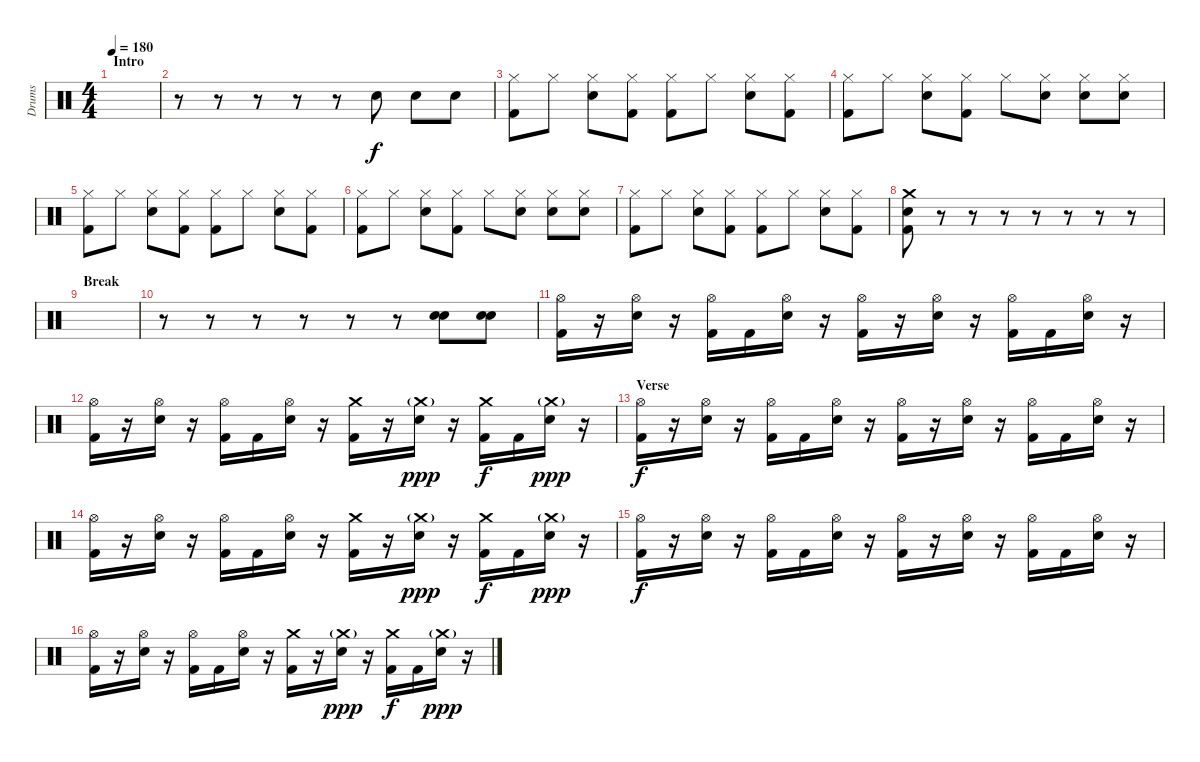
\track ("Drums" "Drums") {instrument percussion}
\staff {score}
\articulation defaults
\ts (4 4)
\section ("" "Intro")
\tempo 180
\clef neutral
\ks c
|
r.8 r.8 r.8 r.8 r.8 "Snare (hit) 2".8 "Snare (hit) 2".8 "Snare (hit) 2".8 |
("Hi-Hat (closed)" "Kick (hit) 2").8 "Hi-Hat (closed)".8 ("Hi-Hat (closed)" "Snare (hit) 2").8 ("Hi-Hat (closed)" "Kick (hit) 2").8 ("Hi-Hat (closed)" "Kick (hit) 2").8 "Hi-Hat (closed)".8 ("Hi-Hat (closed)" "Snare (hit) 2").8 ("Hi-Hat (closed)" "Kick (hit) 2").8 |
("Hi-Hat (closed)" "Kick (hit) 2").8 "Hi-Hat (closed)".8 ("Hi-Hat (closed)" "Snare (hit) 2").8 ("Hi-Hat (closed)" "Kick (hit) 2").8 "Hi-Hat (closed)".8 ("Hi-Hat (closed)" "Snare (hit) 2").8 ("Hi-Hat (closed)" "Snare (hit) 2").8 ("Hi-Hat (closed)" "Snare (hit) 2").8 |
("Hi-Hat (closed)" "Kick (hit) 2").8 "Hi-Hat (closed)".8 ("Hi-Hat (closed)" "Snare (hit) 2").8 ("Hi-Hat (closed)" "Kick (hit) 2").8 ("Hi-Hat (closed)" "Kick (hit) 2").8 "Hi-Hat (closed)".8 ("Hi-Hat (closed)" "Snare (hit) 2").8 ("Hi-Hat (closed)" "Kick (hit) 2").8 |
("Hi-Hat (closed)" "Kick (hit) 2").8 "Hi-Hat (closed)".8 ("Hi-Hat (closed)" "Snare (hit) 2").8 ("Hi-Hat (closed)" "Kick (hit) 2").8 "Hi-Hat (closed)".8 ("Hi-Hat (closed)" "Snare (hit) 2").8 ("Hi-Hat (closed)" "Snare (hit) 2").8 ("Hi-Hat (closed)" "Snare (hit) 2").8 |
("Hi-Hat (closed)" "Kick (hit) 2").8 "Hi-Hat (closed)".8 ("Hi-Hat (closed)" "Snare (hit) 2").8 ("Hi-Hat (closed)" "Kick (hit) 2").8 ("Hi-Hat (closed)" "Kick (hit) 2").8 "Hi-Hat (closed)".8 ("Hi-Hat (closed)" "Snare (hit) 2").8 ("Hi-Hat (closed)" "Kick (hit) 2").8 |
("Crash medium (hit)" "Snare (hit) 2" "Kick (hit) 2").8 r.8 r.8 r.8 r.8 r.8 r.8 r.8 |
\section ("" "Break")
|
r.8 r.8 r.8 r.8 r.8 r.8 ("Snare (hit) 2" "Snare (hit) 2").8 ("Snare (hit) 2" "Snare (hit) 2").8 |
\section ("" "")
("Hi-Hat (open)" "Kick (hit) 2").16 r.16 ("Hi-Hat (open)" "Snare (hit) 2").16 r.16 ("Hi-Hat (open)" "Kick (hit) 2").16 "Kick (hit) 2".16 ("Hi-Hat (open)" "Snare (hit) 2").16 r.16 ("Hi-Hat (open)" "Kick (hit) 2").16 r.16 ("Hi-Hat (open)" "Snare (hit) 2").16 r.16 ("Hi-Hat (open)" "Kick (hit) 2").16 "Kick (hit) 2".16 ("Hi-Hat (open)" "Snare (hit) 2").16 r.16 |
("Hi-Hat (open)" "Kick (hit) 2").16 r.16 ("Hi-Hat (open)" "Snare (hit) 2").16 r.16 ("Hi-Hat (open)" "Kick (hit) 2").16 "Kick (hit) 2".16 ("Hi-Hat (open)" "Snare (hit) 2").16 r.16 ("Crash medium (hit)" "Kick (hit) 2").16 r.16 ("Crash medium (hit)"{g} "Snare (hit) 2").16{dy ppp} r.16 ("Crash medium (hit)" "Kick (hit) 2").16{dy f} "Kick (hit) 2".16 ("Crash medium (hit)"{g} "Snare (hit) 2").16{dy ppp} r.16 |
\section ("" "Verse")
("Hi-Hat (open)" "Kick (hit) 2").16{dy f} r.16 ("Hi-Hat (open)" "Snare (hit) 2").16 r.16 ("Hi-Hat (open)" "Kick (hit) 2").16 "Kick (hit) 2".16 ("Hi-Hat (open)" "Snare (hit) 2").16 r.16 ("Hi-Hat (open)" "Kick (hit) 2").16 r.16 ("Hi-Hat (open)" "Snare (hit) 2").16 r.16 ("Hi-Hat (open)" "Kick (hit) 2").16 "Kick (hit) 2".16 ("Hi-Hat (open)" "Snare (hit) 2").16 r.16 |
("Hi-Hat (open)" "Kick (hit) 2").16 r.16 ("Hi-Hat (open)" "Snare (hit) 2").16 r.16 ("Hi-Hat (open)" "Kick (hit) 2").16 "Kick (hit) 2".16 ("Hi-Hat (open)" "Snare (hit) 2").16 r.16 ("Crash medium (hit)" "Kick (hit) 2").16 r.16 ("Crash medium (hit)"{g} "Snare (hit) 2").16{dy ppp} r.16 ("Crash medium (hit)" "Kick (hit) 2").16{dy f} "Kick (hit) 2".16 ("Crash medium (hit)"{g} "Snare (hit) 2").16{dy ppp} r.16 |
("Hi-Hat (open)" "Kick (hit) 2").16{dy f} r.16 ("Hi-Hat (open)" "Snare (hit) 2").16 r.16 ("Hi-Hat (open)" "Kick (hit) 2").16 "Kick (hit) 2".16 ("Hi-Hat (open)" "Snare (hit) 2").16 r.16 ("Hi-Hat (open)" "Kick (hit) 2").16 r.16 ("Hi-Hat (open)" "Snare (hit) 2").16 r.16 ("Hi-Hat (open)" "Kick (hit) 2").16 "Kick (hit) 2".16 ("Hi-Hat (open)" "Snare (hit) 2").16 r.16 |
("Hi-Hat (open)" "Kick (hit) 2").16 r.16 ("Hi-Hat (open)" "Snare (hit) 2").16 r.16 ("Hi-Hat (open)" "Kick (hit) 2").16 "Kick (hit) 2".16 ("Hi-Hat (open)" "Snare (hit) 2").16 r.16 ("Crash medium (hit)" "Kick (hit) 2").16 r.16 ("Crash medium (hit)"{g} "Snare (hit) 2").16{dy ppp} r.16 ("Crash medium (hit)" "Kick (hit) 2").16{dy f} "Kick (hit) 2".16 ("Crash medium (hit)"{g} "Snare (hit) 2").16{dy ppp} r.16
